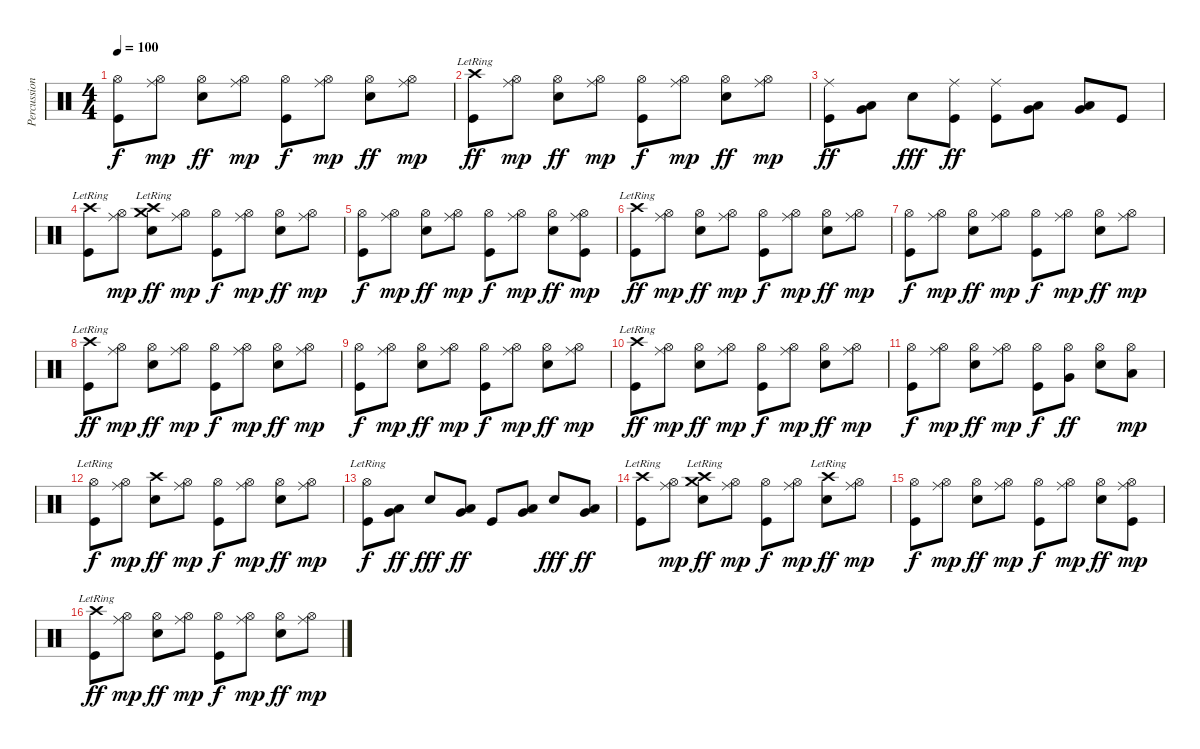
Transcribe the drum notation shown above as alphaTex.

\track ("Percussion" "Percussion") {instrument percussion}
\staff {score}
\articulation defaults
\ts (4 4)
\tempo 100
\clef neutral
\ks c
("Hi-Hat (open)" "Kick (hit)").8{dy f} ("Ride (middle)" "Hi-Hat (open)").8{dy mp} ("Hi-Hat (open)" "Electric Snare (hit)").8{dy ff} ("Ride (middle)" "Hi-Hat (open)").8{dy mp} ("Hi-Hat (open)" "Kick (hit)").8{dy f} ("Ride (middle)" "Hi-Hat (open)").8{dy mp} ("Hi-Hat (open)" "Electric Snare (hit)").8{dy ff} ("Ride (middle)" "Hi-Hat (open)").8{dy mp} |
("Crash high (hit)"{lr} "Kick (hit)").8{dy ff} ("Ride (middle)" "Hi-Hat (open)").8{dy mp} ("Hi-Hat (open)" "Electric Snare (hit)").8{dy ff} ("Ride (middle)" "Hi-Hat (open)").8{dy mp} ("Hi-Hat (open)" "Kick (hit)").8{dy f} ("Ride (middle)" "Hi-Hat (open)").8{dy mp} ("Hi-Hat (open)" "Electric Snare (hit)").8{dy ff} ("Ride (middle)" "Hi-Hat (open)").8{dy mp} |
("Ride (middle)" "Kick (hit)").8{dy ff} ("Low Tom (hit)" "Very Low Tom (hit)").8 "Electric Snare (hit)".8{dy fff} ("Ride (middle)" "Kick (hit)").8{dy ff} ("Ride (middle)" "Kick (hit)").8 ("Very Low Tom (hit)" "Low Floor Tom (hit)").8 ("Very Low Tom (hit)" "Low Floor Tom (hit)").8 "Kick (hit)".8 |
("Crash high (hit)"{lr} "Kick (hit)").8 ("Ride (middle)" "Hi-Hat (open)").8{dy mp} ("Crash medium (hit)"{lr} "Crash high (hit)" "Electric Snare (hit)").8{dy ff} ("Ride (middle)" "Hi-Hat (open)").8{dy mp} ("Hi-Hat (open)" "Kick (hit)").8{dy f} ("Ride (middle)" "Hi-Hat (open)").8{dy mp} ("Hi-Hat (open)" "Electric Snare (hit)").8{dy ff} ("Ride (middle)" "Hi-Hat (open)").8{dy mp} |
("Hi-Hat (open)" "Kick (hit)").8{dy f} ("Ride (middle)" "Hi-Hat (open)").8{dy mp} ("Hi-Hat (open)" "Electric Snare (hit)").8{dy ff} ("Ride (middle)" "Hi-Hat (open)").8{dy mp} ("Hi-Hat (open)" "Kick (hit)").8{dy f} ("Ride (middle)" "Hi-Hat (open)").8{dy mp} ("Hi-Hat (open)" "Electric Snare (hit)").8{dy ff} ("Ride (middle)" "Hi-Hat (open)" "Kick (hit)").8{dy mp} |
("Crash high (hit)"{lr} "Kick (hit)").8{dy ff} ("Ride (middle)" "Hi-Hat (open)").8{dy mp} ("Hi-Hat (open)" "Electric Snare (hit)").8{dy ff} ("Ride (middle)" "Hi-Hat (open)").8{dy mp} ("Hi-Hat (open)" "Kick (hit)").8{dy f} ("Ride (middle)" "Hi-Hat (open)").8{dy mp} ("Hi-Hat (open)" "Electric Snare (hit)").8{dy ff} ("Ride (middle)" "Hi-Hat (open)").8{dy mp} |
("Hi-Hat (open)" "Kick (hit)").8{dy f} ("Ride (middle)" "Hi-Hat (open)").8{dy mp} ("Hi-Hat (open)" "Electric Snare (hit)").8{dy ff} ("Ride (middle)" "Hi-Hat (open)").8{dy mp} ("Hi-Hat (open)" "Kick (hit)").8{dy f} ("Ride (middle)" "Hi-Hat (open)").8{dy mp} ("Hi-Hat (open)" "Electric Snare (hit)").8{dy ff} ("Ride (middle)" "Hi-Hat (open)").8{dy mp} |
("Crash high (hit)"{lr} "Kick (hit)").8{dy ff} ("Ride (middle)" "Hi-Hat (open)").8{dy mp} ("Hi-Hat (open)" "Electric Snare (hit)").8{dy ff} ("Ride (middle)" "Hi-Hat (open)").8{dy mp} ("Hi-Hat (open)" "Kick (hit)").8{dy f} ("Ride (middle)" "Hi-Hat (open)").8{dy mp} ("Hi-Hat (open)" "Electric Snare (hit)").8{dy ff} ("Ride (middle)" "Hi-Hat (open)").8{dy mp} |
("Hi-Hat (open)" "Kick (hit)").8{dy f} ("Ride (middle)" "Hi-Hat (open)").8{dy mp} ("Hi-Hat (open)" "Electric Snare (hit)").8{dy ff} ("Ride (middle)" "Hi-Hat (open)").8{dy mp} ("Hi-Hat (open)" "Kick (hit)").8{dy f} ("Ride (middle)" "Hi-Hat (open)").8{dy mp} ("Hi-Hat (open)" "Electric Snare (hit)").8{dy ff} ("Ride (middle)" "Hi-Hat (open)").8{dy mp} |
("Crash high (hit)"{lr} "Kick (hit)").8{dy ff} ("Ride (middle)" "Hi-Hat (open)").8{dy mp} ("Hi-Hat (open)" "Electric Snare (hit)").8{dy ff} ("Ride (middle)" "Hi-Hat (open)").8{dy mp} ("Hi-Hat (open)" "Kick (hit)").8{dy f} ("Ride (middle)" "Hi-Hat (open)").8{dy mp} ("Hi-Hat (open)" "Electric Snare (hit)").8{dy ff} ("Ride (middle)" "Hi-Hat (open)").8{dy mp} |
("Hi-Hat (open)" "Kick (hit)").8{dy f} ("Ride (middle)" "Hi-Hat (open)").8{dy mp} ("Hi-Hat (open)" "Electric Snare (hit)").8{dy ff} ("Ride (middle)" "Hi-Hat (open)").8{dy mp} ("Hi-Hat (open)" "Kick (hit)").8{dy f} ("Hi-Hat (open)" "Very Low Tom (hit)").8{dy ff} ("Hi-Hat (open)" "Electric Snare (hit)").8 ("Hi-Hat (open)" "Low Floor Tom (hit)").8{dy mp} |
("Hi-Hat (open)"{lr} "Kick (hit)").8{dy f} ("Ride (middle)" "Hi-Hat (open)").8{dy mp} ("Crash high (hit)" "Electric Snare (hit)").8{dy ff} ("Ride (middle)" "Hi-Hat (open)").8{dy mp} ("Hi-Hat (open)" "Kick (hit)").8{dy f} ("Ride (middle)" "Hi-Hat (open)").8{dy mp} ("Hi-Hat (open)" "Electric Snare (hit)").8{dy ff} ("Ride (middle)" "Hi-Hat (open)").8{dy mp} |
("Hi-Hat (open)"{lr} "Kick (hit)").8{dy f} ("Low Tom (hit)" "Very Low Tom (hit)").8{dy ff} "Electric Snare (hit)".8{dy fff} ("Very Low Tom (hit)" "Low Floor Tom (hit)").8{dy ff} "Kick (hit)".8 ("Low Tom (hit)" "Very Low Tom (hit)").8 "Electric Snare (hit)".8{dy fff} ("Very Low Tom (hit)" "Low Floor Tom (hit)").8{dy ff} |
("Crash high (hit)"{lr} "Kick (hit)").8{volume 14} ("Ride (middle)" "Hi-Hat (open)").8{dy mp} ("Crash medium (hit)"{lr} "Crash high (hit)"{lr} "Electric Snare (hit)").8{dy ff} ("Ride (middle)" "Hi-Hat (open)").8{dy mp} ("Hi-Hat (open)" "Kick (hit)").8{dy f} ("Ride (middle)" "Hi-Hat (open)").8{dy mp} ("Crash high (hit)"{lr} "Electric Snare (hit)").8{dy ff} ("Ride (middle)" "Hi-Hat (open)").8{dy mp} |
("Hi-Hat (open)" "Kick (hit)").8{dy f volume 11} ("Ride (middle)" "Hi-Hat (open)").8{dy mp} ("Hi-Hat (open)" "Electric Snare (hit)").8{dy ff} ("Ride (middle)" "Hi-Hat (open)").8{dy mp} ("Hi-Hat (open)" "Kick (hit)").8{dy f} ("Ride (middle)" "Hi-Hat (open)").8{dy mp} ("Hi-Hat (open)" "Electric Snare (hit)").8{dy ff} ("Ride (middle)" "Hi-Hat (open)" "Kick (hit)").8{dy mp} |
("Crash high (hit)"{lr} "Kick (hit)").8{dy ff} ("Ride (middle)" "Hi-Hat (open)").8{dy mp} ("Hi-Hat (open)" "Electric Snare (hit)").8{dy ff} ("Ride (middle)" "Hi-Hat (open)").8{dy mp} ("Hi-Hat (open)" "Kick (hit)").8{dy f} ("Ride (middle)" "Hi-Hat (open)").8{dy mp} ("Hi-Hat (open)" "Electric Snare (hit)").8{dy ff} ("Ride (middle)" "Hi-Hat (open)").8{dy mp}
